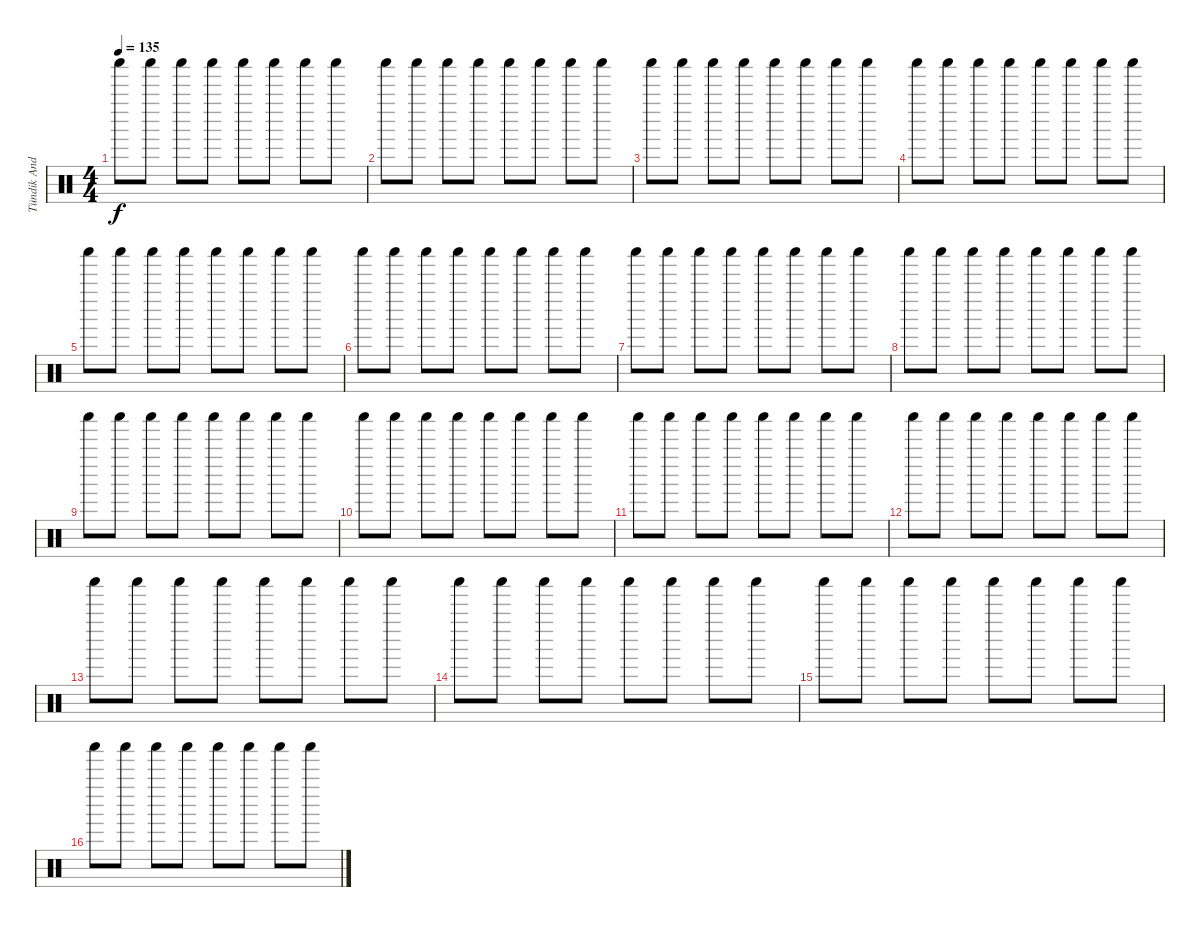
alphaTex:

\track ("Tündik András - Shaker" "Tündik And") {instrument percussion}
\staff {score}
\articulation defaults
\ts (4 4)
\tempo 135
\clef neutral
\ks c "Shaker (hit)".8{dy f} "Shaker (hit)".8 "Shaker (hit)".8 "Shaker (hit)".8 "Shaker (hit)".8 "Shaker (hit)".8 "Shaker (hit)".8 "Shaker (hit)".8
|
"Shaker (hit)".8 "Shaker (hit)".8 "Shaker (hit)".8 "Shaker (hit)".8 "Shaker (hit)".8 "Shaker (hit)".8 "Shaker (hit)".8 "Shaker (hit)".8 |
"Shaker (hit)".8 "Shaker (hit)".8 "Shaker (hit)".8 "Shaker (hit)".8 "Shaker (hit)".8 "Shaker (hit)".8 "Shaker (hit)".8 "Shaker (hit)".8 |
"Shaker (hit)".8 "Shaker (hit)".8 "Shaker (hit)".8 "Shaker (hit)".8 "Shaker (hit)".8 "Shaker (hit)".8 "Shaker (hit)".8 "Shaker (hit)".8 |
"Shaker (hit)".8 "Shaker (hit)".8 "Shaker (hit)".8 "Shaker (hit)".8 "Shaker (hit)".8 "Shaker (hit)".8 "Shaker (hit)".8 "Shaker (hit)".8 |
"Shaker (hit)".8 "Shaker (hit)".8 "Shaker (hit)".8 "Shaker (hit)".8 "Shaker (hit)".8 "Shaker (hit)".8 "Shaker (hit)".8 "Shaker (hit)".8 |
"Shaker (hit)".8 "Shaker (hit)".8 "Shaker (hit)".8 "Shaker (hit)".8 "Shaker (hit)".8 "Shaker (hit)".8 "Shaker (hit)".8 "Shaker (hit)".8 |
"Shaker (hit)".8 "Shaker (hit)".8 "Shaker (hit)".8 "Shaker (hit)".8 "Shaker (hit)".8 "Shaker (hit)".8 "Shaker (hit)".8 "Shaker (hit)".8 |
"Shaker (hit)".8 "Shaker (hit)".8 "Shaker (hit)".8 "Shaker (hit)".8 "Shaker (hit)".8 "Shaker (hit)".8 "Shaker (hit)".8 "Shaker (hit)".8 |
"Shaker (hit)".8 "Shaker (hit)".8 "Shaker (hit)".8 "Shaker (hit)".8 "Shaker (hit)".8 "Shaker (hit)".8 "Shaker (hit)".8 "Shaker (hit)".8 |
"Shaker (hit)".8 "Shaker (hit)".8 "Shaker (hit)".8 "Shaker (hit)".8 "Shaker (hit)".8 "Shaker (hit)".8 "Shaker (hit)".8 "Shaker (hit)".8 |
"Shaker (hit)".8 "Shaker (hit)".8 "Shaker (hit)".8 "Shaker (hit)".8 "Shaker (hit)".8 "Shaker (hit)".8 "Shaker (hit)".8 "Shaker (hit)".8 |
"Shaker (hit)".8 "Shaker (hit)".8 "Shaker (hit)".8 "Shaker (hit)".8 "Shaker (hit)".8 "Shaker (hit)".8 "Shaker (hit)".8 "Shaker (hit)".8 |
"Shaker (hit)".8 "Shaker (hit)".8 "Shaker (hit)".8 "Shaker (hit)".8 "Shaker (hit)".8 "Shaker (hit)".8 "Shaker (hit)".8 "Shaker (hit)".8 |
"Shaker (hit)".8 "Shaker (hit)".8 "Shaker (hit)".8 "Shaker (hit)".8 "Shaker (hit)".8 "Shaker (hit)".8 "Shaker (hit)".8 "Shaker (hit)".8 |
"Shaker (hit)".8 "Shaker (hit)".8 "Shaker (hit)".8 "Shaker (hit)".8 "Shaker (hit)".8 "Shaker (hit)".8 "Shaker (hit)".8 "Shaker (hit)".8
